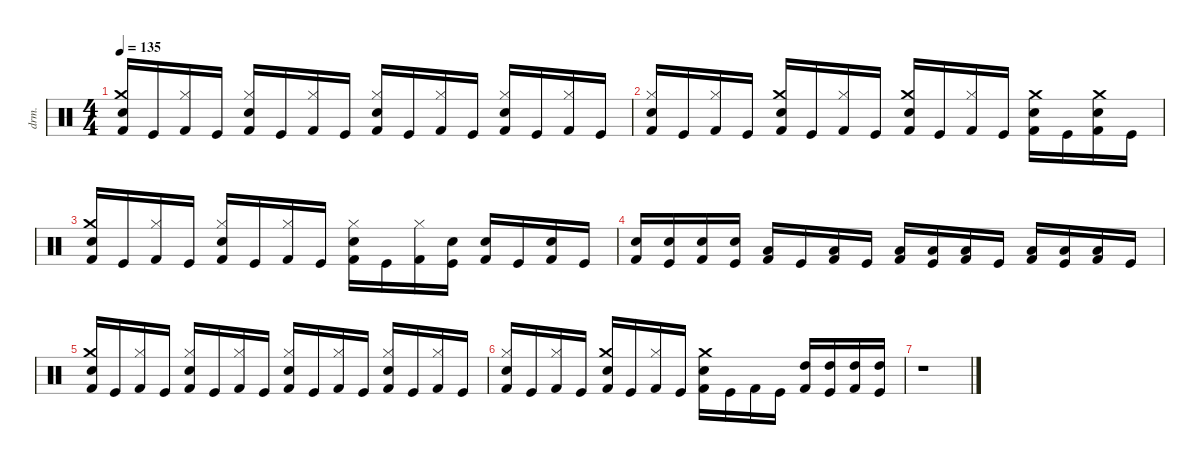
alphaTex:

\defaultSystemsLayout 4
\hideDynamics
\bracketExtendMode nobrackets
\otherSystemsTrackNameOrientation horizontal
\track ("Lars Ulrich (Drums)" "drm.") {instrument percussion}
\staff {score}
\articulation defaults
\ts (4 4)
\tempo 135
\clef neutral
\ks c
("Snare (hit) 2" "Crash medium (hit)" "Kick (hit) 2").16{dy f beam Up} "Kick (hit)".16{beam Up} ("Hi-Hat (closed)" "Kick (hit) 2").16{beam Up} "Kick (hit)".16{beam Up} ("Snare (hit) 2" "Hi-Hat (closed)" "Kick (hit) 2").16{beam Up} "Kick (hit)".16{beam Up} ("Hi-Hat (closed)" "Kick (hit) 2").16{beam Up} "Kick (hit)".16{beam Up} ("Snare (hit) 2" "Hi-Hat (closed)" "Kick (hit) 2").16{beam Up} "Kick (hit)".16{beam Up} ("Hi-Hat (closed)" "Kick (hit) 2").16{beam Up} "Kick (hit)".16{beam Up} ("Snare (hit) 2" "Hi-Hat (closed)" "Kick (hit) 2").16{beam Up} "Kick (hit)".16{beam Up} ("Hi-Hat (closed)" "Kick (hit) 2").16{beam Up} "Kick (hit)".16{beam Up} |
("Snare (hit) 2" "Hi-Hat (closed)" "Kick (hit) 2").16{beam Up} "Kick (hit)".16{beam Up} ("Hi-Hat (closed)" "Kick (hit) 2").16{beam Up} "Kick (hit)".16{beam Up} ("Crash medium (hit)" "Snare (hit) 2" "Kick (hit) 2").16{beam Up} "Kick (hit)".16{beam Up} ("Hi-Hat (closed)" "Kick (hit) 2").16{beam Up} "Kick (hit)".16{beam Up} ("Crash medium (hit)" "Snare (hit) 2" "Kick (hit) 2").16{beam Up} "Kick (hit)".16{beam Up} ("Hi-Hat (closed)" "Kick (hit) 2").16{beam Up} "Kick (hit)".16{beam Up} ("Crash medium (hit)" "Snare (hit) 2" "Kick (hit) 2").16{beam Down} "Kick (hit)".16{beam Down} ("Crash medium (hit)" "Snare (hit) 2" "Kick (hit) 2").16{beam Down} "Kick (hit)".16{beam Down} |
("Snare (hit) 2" "Crash medium (hit)" "Kick (hit) 2").16{beam Up} "Kick (hit)".16{beam Up} ("Hi-Hat (closed)" "Kick (hit) 2").16{beam Up} "Kick (hit)".16{beam Up} ("Snare (hit) 2" "Hi-Hat (closed)" "Kick (hit) 2").16{beam Up} "Kick (hit)".16{beam Up} ("Hi-Hat (closed)" "Kick (hit) 2").16{beam Up} "Kick (hit)".16{beam Up} ("Snare (hit) 2" "Hi-Hat (closed)" "Kick (hit) 2").16{beam Down} "Kick (hit)".16{beam Down} ("Hi-Hat (closed)" "Kick (hit) 2").16{beam Down} ("Snare (hit) 2" "Kick (hit)").16{beam Down} ("Snare (hit) 2" "Kick (hit) 2").16{beam Up} "Kick (hit)".16{beam Up} ("Snare (hit) 2" "Kick (hit) 2").16{beam Up} "Kick (hit)".16{beam Up} |
("Snare (hit) 2" "Kick (hit) 2").16{beam Up} ("Snare (hit) 2" "Kick (hit)").16{beam Up} ("Snare (hit) 2" "Kick (hit) 2").16{beam Up} ("Snare (hit) 2" "Kick (hit)").16{beam Up} ("Low Tom (hit)" "Kick (hit) 2").16{beam Up} "Kick (hit)".16{beam Up} ("Low Tom (hit)" "Kick (hit) 2").16{beam Up} "Kick (hit)".16{beam Up} ("Low Tom (hit)" "Kick (hit) 2").16{beam Up} ("Low Tom (hit)" "Kick (hit)").16{beam Up} ("Low Tom (hit)" "Kick (hit) 2").16{beam Up} "Kick (hit)".16{beam Up} ("Low Tom (hit)" "Kick (hit) 2").16{beam Up} ("Low Tom (hit)" "Kick (hit)").16{beam Up} ("Low Tom (hit)" "Kick (hit) 2").16{beam Up} "Kick (hit)".16{beam Up} |
("Crash medium (hit)" "Snare (hit) 2" "Kick (hit) 2").16{beam Up} "Kick (hit)".16{beam Up} ("Hi-Hat (closed)" "Kick (hit) 2").16{beam Up} "Kick (hit)".16{beam Up} ("Snare (hit) 2" "Hi-Hat (closed)" "Kick (hit) 2").16{beam Up} "Kick (hit)".16{beam Up} ("Hi-Hat (closed)" "Kick (hit) 2").16{beam Up} "Kick (hit)".16{beam Up} ("Snare (hit) 2" "Hi-Hat (closed)" "Kick (hit) 2").16{beam Up} "Kick (hit)".16{beam Up} ("Hi-Hat (closed)" "Kick (hit) 2").16{beam Up} "Kick (hit)".16{beam Up} ("Snare (hit) 2" "Hi-Hat (closed)" "Kick (hit) 2").16{beam Up} "Kick (hit)".16{beam Up} ("Hi-Hat (closed)" "Kick (hit) 2").16{beam Up} "Kick (hit)".16{beam Up} |
("Snare (hit) 2" "Hi-Hat (closed)" "Kick (hit) 2").16{beam Up} "Kick (hit)".16{beam Up} ("Hi-Hat (closed)" "Kick (hit) 2").16{beam Up} "Kick (hit)".16{beam Up} ("Crash medium (hit)" "Snare (hit) 2" "Kick (hit) 2").16{beam Up} "Kick (hit)".16{beam Up} ("Hi-Hat (closed)" "Kick (hit) 2").16{beam Up} "Kick (hit)".16{beam Up} ("Snare (hit) 2" "Crash medium (hit)" "Kick (hit) 2").16{beam Down} "Kick (hit)".16{beam Down} "Kick (hit) 2".16{beam Down} "Kick (hit)".16{beam Down} ("High Tom (hit)" "Kick (hit) 2").16{beam Up} ("High Tom (hit)" "Kick (hit)").16{beam Up} ("High Tom (hit)" "Kick (hit) 2").16{beam Up} ("High Tom (hit)" "Kick (hit)").16{beam Up} |
r.1{beam Down}
